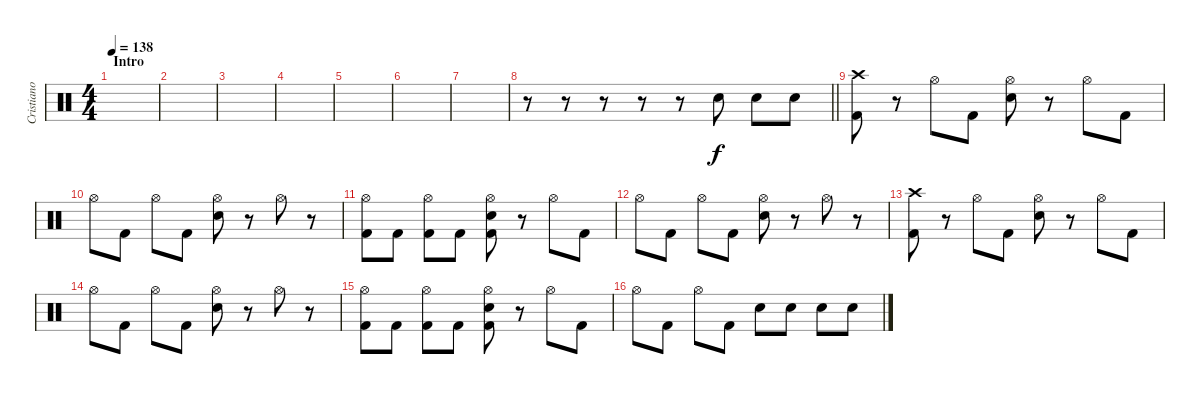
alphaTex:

\track ("Cristiano Mozatti" "Cristiano ") {instrument percussion}
\staff {score}
\articulation defaults
\ts (4 4)
\section ("" "Intro")
\tempo 138
\clef neutral
\ks c
|
|
|
|
|
|
|
\barLineRight lightlight
r.8 r.8 r.8 r.8 r.8 "Snare (hit) 2".8 "Snare (hit) 2".8 "Snare (hit) 2".8 |
("Crash high (hit)" "Kick (hit) 2").8 r.8 "Hi-Hat (open)".8 "Kick (hit) 2".8 ("Hi-Hat (open)" "Snare (hit) 2").8 r.8 "Hi-Hat (open)".8 "Kick (hit) 2".8 |
"Hi-Hat (open)".8 "Kick (hit) 2".8 "Hi-Hat (open)".8 "Kick (hit) 2".8 ("Hi-Hat (open)" "Snare (hit) 2").8 r.8 "Hi-Hat (open)".8 r.8 |
("Hi-Hat (open)" "Kick (hit) 2").8 "Kick (hit) 2".8 ("Hi-Hat (open)" "Kick (hit) 2").8 "Kick (hit) 2".8 ("Hi-Hat (open)" "Snare (hit) 2" "Kick (hit) 2").8 r.8 "Hi-Hat (open)".8 "Kick (hit) 2".8 |
"Hi-Hat (open)".8 "Kick (hit) 2".8 "Hi-Hat (open)".8 "Kick (hit) 2".8 ("Hi-Hat (open)" "Snare (hit) 2").8 r.8 "Hi-Hat (open)".8 r.8 |
("Crash high (hit)" "Kick (hit) 2").8 r.8 "Hi-Hat (open)".8 "Kick (hit) 2".8 ("Hi-Hat (open)" "Snare (hit) 2").8 r.8 "Hi-Hat (open)".8 "Kick (hit) 2".8 |
"Hi-Hat (open)".8 "Kick (hit) 2".8 "Hi-Hat (open)".8 "Kick (hit) 2".8 ("Hi-Hat (open)" "Snare (hit) 2").8 r.8 "Hi-Hat (open)".8 r.8 |
("Hi-Hat (open)" "Kick (hit) 2").8 "Kick (hit) 2".8 ("Hi-Hat (open)" "Kick (hit) 2").8 "Kick (hit) 2".8 ("Hi-Hat (open)" "Snare (hit) 2" "Kick (hit) 2").8 r.8 "Hi-Hat (open)".8 "Kick (hit) 2".8 |
"Hi-Hat (open)".8 "Kick (hit) 2".8 "Hi-Hat (open)".8 "Kick (hit) 2".8 "Snare (hit) 2".8 "Snare (hit) 2".8 "Snare (hit) 2".8 "Snare (hit) 2".8
